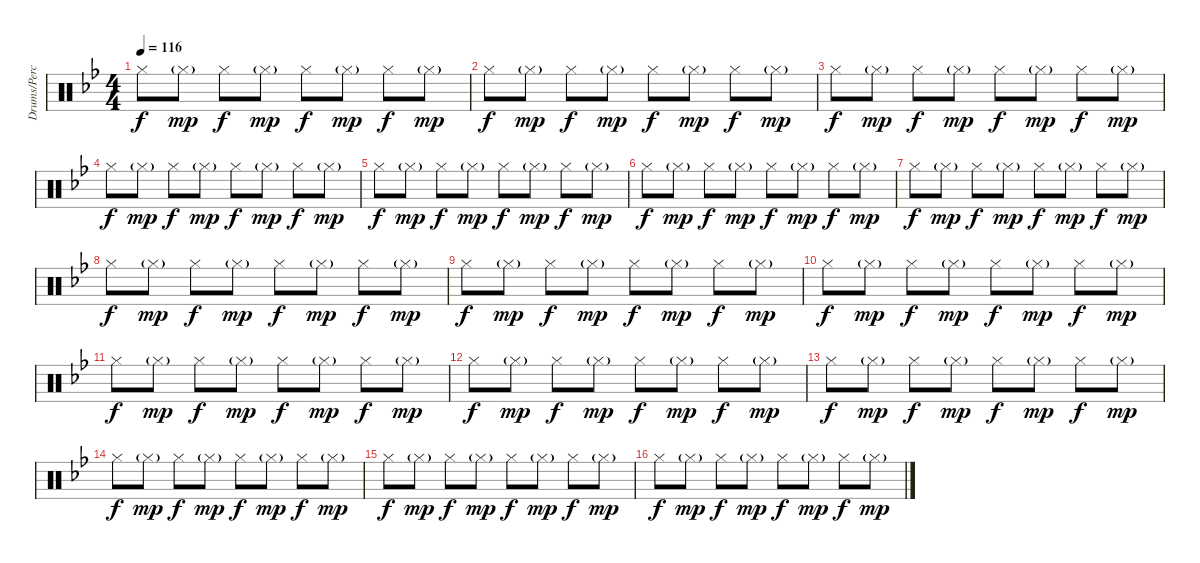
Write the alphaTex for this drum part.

\track ("Drums/Percussion (Bengerg)" "Drums/Perc") {instrument percussion}
\staff {score}
\articulation defaults
\ts (4 4)
\tempo 116
\clef neutral
\ks bb "Hi-Hat (closed)".8{dy f} "Hi-Hat (closed)"{g}.8{dy mp} "Hi-Hat (closed)".8{dy f} "Hi-Hat (closed)"{g}.8{dy mp} "Hi-Hat (closed)".8{dy f} "Hi-Hat (closed)"{g}.8{dy mp} "Hi-Hat (closed)".8{dy f} "Hi-Hat (closed)"{g}.8{dy mp}
|
"Hi-Hat (closed)".8{dy f} "Hi-Hat (closed)"{g}.8{dy mp} "Hi-Hat (closed)".8{dy f} "Hi-Hat (closed)"{g}.8{dy mp} "Hi-Hat (closed)".8{dy f} "Hi-Hat (closed)"{g}.8{dy mp} "Hi-Hat (closed)".8{dy f} "Hi-Hat (closed)"{g}.8{dy mp} |
"Hi-Hat (closed)".8{dy f} "Hi-Hat (closed)"{g}.8{dy mp} "Hi-Hat (closed)".8{dy f} "Hi-Hat (closed)"{g}.8{dy mp} "Hi-Hat (closed)".8{dy f} "Hi-Hat (closed)"{g}.8{dy mp} "Hi-Hat (closed)".8{dy f} "Hi-Hat (closed)"{g}.8{dy mp} |
"Hi-Hat (closed)".8{dy f} "Hi-Hat (closed)"{g}.8{dy mp} "Hi-Hat (closed)".8{dy f} "Hi-Hat (closed)"{g}.8{dy mp} "Hi-Hat (closed)".8{dy f} "Hi-Hat (closed)"{g}.8{dy mp} "Hi-Hat (closed)".8{dy f} "Hi-Hat (closed)"{g}.8{dy mp} |
"Hi-Hat (closed)".8{dy f} "Hi-Hat (closed)"{g}.8{dy mp} "Hi-Hat (closed)".8{dy f} "Hi-Hat (closed)"{g}.8{dy mp} "Hi-Hat (closed)".8{dy f} "Hi-Hat (closed)"{g}.8{dy mp} "Hi-Hat (closed)".8{dy f} "Hi-Hat (closed)"{g}.8{dy mp} |
"Hi-Hat (closed)".8{dy f} "Hi-Hat (closed)"{g}.8{dy mp} "Hi-Hat (closed)".8{dy f} "Hi-Hat (closed)"{g}.8{dy mp} "Hi-Hat (closed)".8{dy f} "Hi-Hat (closed)"{g}.8{dy mp} "Hi-Hat (closed)".8{dy f} "Hi-Hat (closed)"{g}.8{dy mp} |
"Hi-Hat (closed)".8{dy f} "Hi-Hat (closed)"{g}.8{dy mp} "Hi-Hat (closed)".8{dy f} "Hi-Hat (closed)"{g}.8{dy mp} "Hi-Hat (closed)".8{dy f} "Hi-Hat (closed)"{g}.8{dy mp} "Hi-Hat (closed)".8{dy f} "Hi-Hat (closed)"{g}.8{dy mp} |
"Hi-Hat (closed)".8{dy f} "Hi-Hat (closed)"{g}.8{dy mp} "Hi-Hat (closed)".8{dy f} "Hi-Hat (closed)"{g}.8{dy mp} "Hi-Hat (closed)".8{dy f} "Hi-Hat (closed)"{g}.8{dy mp} "Hi-Hat (closed)".8{dy f} "Hi-Hat (closed)"{g}.8{dy mp} |
"Hi-Hat (closed)".8{dy f} "Hi-Hat (closed)"{g}.8{dy mp} "Hi-Hat (closed)".8{dy f} "Hi-Hat (closed)"{g}.8{dy mp} "Hi-Hat (closed)".8{dy f} "Hi-Hat (closed)"{g}.8{dy mp} "Hi-Hat (closed)".8{dy f} "Hi-Hat (closed)"{g}.8{dy mp} |
"Hi-Hat (closed)".8{dy f} "Hi-Hat (closed)"{g}.8{dy mp} "Hi-Hat (closed)".8{dy f} "Hi-Hat (closed)"{g}.8{dy mp} "Hi-Hat (closed)".8{dy f} "Hi-Hat (closed)"{g}.8{dy mp} "Hi-Hat (closed)".8{dy f} "Hi-Hat (closed)"{g}.8{dy mp} |
"Hi-Hat (closed)".8{dy f} "Hi-Hat (closed)"{g}.8{dy mp} "Hi-Hat (closed)".8{dy f} "Hi-Hat (closed)"{g}.8{dy mp} "Hi-Hat (closed)".8{dy f} "Hi-Hat (closed)"{g}.8{dy mp} "Hi-Hat (closed)".8{dy f} "Hi-Hat (closed)"{g}.8{dy mp} |
"Hi-Hat (closed)".8{dy f} "Hi-Hat (closed)"{g}.8{dy mp} "Hi-Hat (closed)".8{dy f} "Hi-Hat (closed)"{g}.8{dy mp} "Hi-Hat (closed)".8{dy f} "Hi-Hat (closed)"{g}.8{dy mp} "Hi-Hat (closed)".8{dy f} "Hi-Hat (closed)"{g}.8{dy mp} |
"Hi-Hat (closed)".8{dy f} "Hi-Hat (closed)"{g}.8{dy mp} "Hi-Hat (closed)".8{dy f} "Hi-Hat (closed)"{g}.8{dy mp} "Hi-Hat (closed)".8{dy f} "Hi-Hat (closed)"{g}.8{dy mp} "Hi-Hat (closed)".8{dy f} "Hi-Hat (closed)"{g}.8{dy mp} |
"Hi-Hat (closed)".8{dy f} "Hi-Hat (closed)"{g}.8{dy mp} "Hi-Hat (closed)".8{dy f} "Hi-Hat (closed)"{g}.8{dy mp} "Hi-Hat (closed)".8{dy f} "Hi-Hat (closed)"{g}.8{dy mp} "Hi-Hat (closed)".8{dy f} "Hi-Hat (closed)"{g}.8{dy mp} |
"Hi-Hat (closed)".8{dy f} "Hi-Hat (closed)"{g}.8{dy mp} "Hi-Hat (closed)".8{dy f} "Hi-Hat (closed)"{g}.8{dy mp} "Hi-Hat (closed)".8{dy f} "Hi-Hat (closed)"{g}.8{dy mp} "Hi-Hat (closed)".8{dy f} "Hi-Hat (closed)"{g}.8{dy mp} |
"Hi-Hat (closed)".8{dy f} "Hi-Hat (closed)"{g}.8{dy mp} "Hi-Hat (closed)".8{dy f} "Hi-Hat (closed)"{g}.8{dy mp} "Hi-Hat (closed)".8{dy f} "Hi-Hat (closed)"{g}.8{dy mp} "Hi-Hat (closed)".8{dy f} "Hi-Hat (closed)"{g}.8{dy mp}
